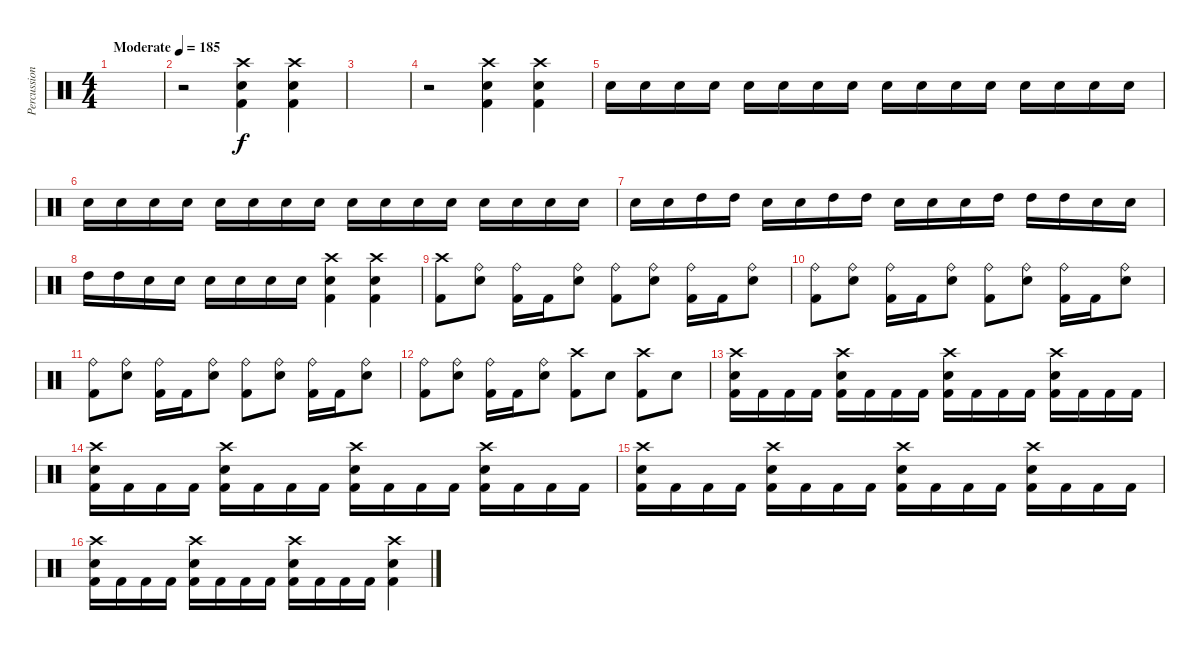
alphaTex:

\track ("Percussion" "Percussion") {instrument percussion}
\staff {score}
\articulation defaults
\ts (4 4)
\tempo (185 "Moderate")
\clef neutral
\ks c
|
r.2 ("Crash high (hit)" "Snare (hit) 2" "Kick (hit) 2").4 ("Crash high (hit)" "Snare (hit) 2" "Kick (hit) 2").4 |
|
r.2 ("Crash high (hit)" "Snare (hit) 2" "Kick (hit) 2").4 ("Crash high (hit)" "Snare (hit) 2" "Kick (hit) 2").4 |
"Snare (hit) 2".16{volume 0} "Snare (hit) 2".16{volume 13} "Snare (hit) 2".16 "Snare (hit) 2".16 "Snare (hit) 2".16 "Snare (hit) 2".16 "Snare (hit) 2".16 "Snare (hit) 2".16 "Snare (hit) 2".16 "Snare (hit) 2".16 "Snare (hit) 2".16 "Snare (hit) 2".16 "Snare (hit) 2".16 "Snare (hit) 2".16 "Snare (hit) 2".16 "Snare (hit) 2".16 |
"Snare (hit) 2".16 "Snare (hit) 2".16 "Snare (hit) 2".16 "Snare (hit) 2".16 "Snare (hit) 2".16 "Snare (hit) 2".16 "Snare (hit) 2".16 "Snare (hit) 2".16 "Snare (hit) 2".16 "Snare (hit) 2".16 "Snare (hit) 2".16 "Snare (hit) 2".16 "Snare (hit) 2".16 "Snare (hit) 2".16 "Snare (hit) 2".16 "Snare (hit) 2".16 |
"Snare (hit) 2".16 "Snare (hit) 2".16 "High Tom (hit)".16 "High Tom (hit)".16 "Snare (hit) 2".16 "Snare (hit) 2".16 "High Tom (hit)".16 "High Tom (hit)".16 "Snare (hit) 2".16 "Snare (hit) 2".16 "Snare (hit) 2".16 "High Tom (hit)".16 "High Tom (hit)".16 "High Tom (hit)".16 "Snare (hit) 2".16 "Snare (hit) 2".16 |
"High Tom (hit)".16 "High Tom (hit)".16 "Snare (hit) 2".16 "Snare (hit) 2".16 "Snare (hit) 2".16 "Snare (hit) 2".16 "Snare (hit) 2".16 "Snare (hit) 2".16 ("Crash high (hit)" "Snare (hit) 2" "Kick (hit) 2").4 ("Crash high (hit)" "Snare (hit) 2" "Kick (hit) 2").4 |
("Crash high (hit)" "Kick (hit) 2").8 ("Ride (bell)" "Snare (hit) 2").8 ("Ride (bell)" "Kick (hit) 2").16 "Kick (hit) 2".16 ("Ride (bell)" "Snare (hit) 2").8 ("Ride (bell)" "Kick (hit) 2").8 ("Ride (bell)" "Snare (hit) 2").8 ("Ride (bell)" "Kick (hit) 2").16 "Kick (hit) 2".16 ("Ride (bell)" "Snare (hit) 2").8 |
("Ride (bell)" "Kick (hit) 2").8 ("Ride (bell)" "Snare (hit) 2").8 ("Ride (bell)" "Kick (hit) 2").16 "Kick (hit) 2".16 ("Ride (bell)" "Snare (hit) 2").8 ("Ride (bell)" "Kick (hit) 2").8 ("Ride (bell)" "Snare (hit) 2").8 ("Ride (bell)" "Kick (hit) 2").16 "Kick (hit) 2".16 ("Ride (bell)" "Snare (hit) 2").8 |
("Ride (bell)" "Kick (hit) 2").8 ("Ride (bell)" "Snare (hit) 2").8 ("Ride (bell)" "Kick (hit) 2").16 "Kick (hit) 2".16 ("Ride (bell)" "Snare (hit) 2").8 ("Ride (bell)" "Kick (hit) 2").8 ("Ride (bell)" "Snare (hit) 2").8 ("Ride (bell)" "Kick (hit) 2").16 "Kick (hit) 2".16 ("Ride (bell)" "Snare (hit) 2").8 |
("Ride (bell)" "Kick (hit) 2").8 ("Ride (bell)" "Snare (hit) 2").8 ("Ride (bell)" "Kick (hit) 2").16 "Kick (hit) 2".16 ("Ride (bell)" "Snare (hit) 2").8 ("Crash high (hit)" "Kick (hit) 2").8 "Snare (hit) 2".8 ("Crash high (hit)" "Kick (hit) 2").8 "Snare (hit) 2".8 |
("Crash high (hit)" "Snare (hit) 2" "Kick (hit) 2").16 "Kick (hit) 2".16 "Kick (hit) 2".16 "Kick (hit) 2".16 ("Crash high (hit)" "Snare (hit) 2" "Kick (hit) 2").16 "Kick (hit) 2".16 "Kick (hit) 2".16 "Kick (hit) 2".16 ("Crash high (hit)" "Snare (hit) 2" "Kick (hit) 2").16 "Kick (hit) 2".16 "Kick (hit) 2".16 "Kick (hit) 2".16 ("Crash high (hit)" "Snare (hit) 2" "Kick (hit) 2").16 "Kick (hit) 2".16 "Kick (hit) 2".16 "Kick (hit) 2".16 |
("Crash high (hit)" "Snare (hit) 2" "Kick (hit) 2").16 "Kick (hit) 2".16 "Kick (hit) 2".16 "Kick (hit) 2".16 ("Crash high (hit)" "Snare (hit) 2" "Kick (hit) 2").16 "Kick (hit) 2".16 "Kick (hit) 2".16 "Kick (hit) 2".16 ("Crash high (hit)" "Snare (hit) 2" "Kick (hit) 2").16 "Kick (hit) 2".16 "Kick (hit) 2".16 "Kick (hit) 2".16 ("Crash high (hit)" "Snare (hit) 2" "Kick (hit) 2").16 "Kick (hit) 2".16 "Kick (hit) 2".16 "Kick (hit) 2".16 |
("Crash high (hit)" "Snare (hit) 2" "Kick (hit) 2").16 "Kick (hit) 2".16 "Kick (hit) 2".16 "Kick (hit) 2".16 ("Crash high (hit)" "Snare (hit) 2" "Kick (hit) 2").16 "Kick (hit) 2".16 "Kick (hit) 2".16 "Kick (hit) 2".16 ("Crash high (hit)" "Snare (hit) 2" "Kick (hit) 2").16 "Kick (hit) 2".16 "Kick (hit) 2".16 "Kick (hit) 2".16 ("Crash high (hit)" "Snare (hit) 2" "Kick (hit) 2").16 "Kick (hit) 2".16 "Kick (hit) 2".16 "Kick (hit) 2".16 |
("Crash high (hit)" "Snare (hit) 2" "Kick (hit) 2").16 "Kick (hit) 2".16 "Kick (hit) 2".16 "Kick (hit) 2".16 ("Crash high (hit)" "Snare (hit) 2" "Kick (hit) 2").16 "Kick (hit) 2".16 "Kick (hit) 2".16 "Kick (hit) 2".16 ("Crash high (hit)" "Snare (hit) 2" "Kick (hit) 2").16 "Kick (hit) 2".16 "Kick (hit) 2".16 "Kick (hit) 2".16 ("Crash high (hit)" "Snare (hit) 2" "Kick (hit) 2").4
